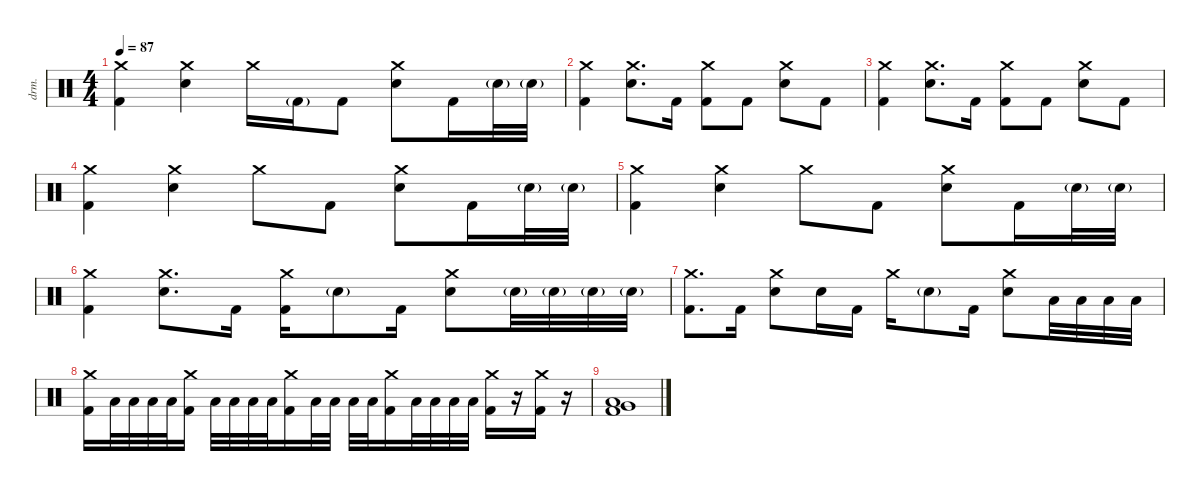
\defaultSystemsLayout 4
\hideDynamics
\bracketExtendMode nobrackets
\track ("Ударные" "drm.") {instrument percussion}
\staff {score}
\articulation defaults
\ts (4 4)
\tempo 87
\clef neutral
\ks c
("Crash medium (hit)" "Kick (hit) 2").4{dy f} ("Crash medium (hit)" "Snare (hit) 2").4 "Crash medium (hit)".16 "Kick (hit) 2"{g}.16{dy mf} "Kick (hit) 2".8{dy f} ("Crash medium (hit)" "Snare (hit) 2").8 "Kick (hit) 2".16 "Snare (hit) 2"{g}.32{dy mf} "Snare (hit) 2"{g}.32 |
("Crash medium (hit)" "Kick (hit) 2").4{dy f} ("Crash medium (hit)" "Snare (hit) 2").8{d} "Kick (hit) 2".16 ("Crash medium (hit)" "Kick (hit) 2").8 "Kick (hit) 2".8 ("Crash medium (hit)" "Snare (hit) 2").8 "Kick (hit) 2".8 |
("Crash medium (hit)" "Kick (hit) 2").4 ("Crash medium (hit)" "Snare (hit) 2").8{d} "Kick (hit) 2".16 ("Crash medium (hit)" "Kick (hit) 2").8 "Kick (hit) 2".8 ("Crash medium (hit)" "Snare (hit) 2").8 "Kick (hit) 2".8 |
("Crash medium (hit)" "Kick (hit) 2").4 ("Crash medium (hit)" "Snare (hit) 2").4 "Crash medium (hit)".8 "Kick (hit) 2".8 ("Crash medium (hit)" "Snare (hit) 2").8 "Kick (hit) 2".16 "Snare (hit) 2"{g}.32{dy mf} "Snare (hit) 2"{g}.32 |
("Crash medium (hit)" "Kick (hit) 2").4{dy f} ("Crash medium (hit)" "Snare (hit) 2").4 "Crash medium (hit)".8 "Kick (hit) 2".8 ("Crash medium (hit)" "Snare (hit) 2").8 "Kick (hit) 2".16 "Snare (hit) 2"{g}.32{dy mf} "Snare (hit) 2"{g}.32 |
("Crash medium (hit)" "Kick (hit) 2").4{dy f} ("Crash medium (hit)" "Snare (hit) 2").8{d} "Kick (hit) 2".16 ("Crash medium (hit)" "Kick (hit) 2").16 "Snare (hit) 2"{g}.8{dy mf} "Kick (hit) 2".16{dy f} ("Crash medium (hit)" "Snare (hit) 2").8 "Snare (hit) 2"{g}.32{dy mf} "Snare (hit) 2"{g}.32 "Snare (hit) 2"{g}.32 "Snare (hit) 2"{g}.32 |
("Crash medium (hit)" "Kick (hit) 2").8{d dy f} "Kick (hit) 2".16 ("Crash medium (hit)" "Snare (hit) 2").8 "Snare (hit) 2".16 "Kick (hit) 2".16 "Crash medium (hit)".16 "Snare (hit) 2"{g}.8{dy mf} "Kick (hit) 2".16{dy f} ("Crash medium (hit)" "Snare (hit) 2").8 "Low Floor Tom (hit)".32 "Low Floor Tom (hit)".32 "Low Floor Tom (hit)".32 "Low Floor Tom (hit)".32 |
("Crash medium (hit)" "Kick (hit) 2").16 "Low Floor Tom (hit)".32 "Low Floor Tom (hit)".32 "Low Floor Tom (hit)".32 "Low Floor Tom (hit)".32 ("Crash medium (hit)" "Kick (hit) 2").16 "Low Floor Tom (hit)".32 "Low Floor Tom (hit)".32 "Low Floor Tom (hit)".32 "Low Floor Tom (hit)".32 ("Crash medium (hit)" "Kick (hit) 2").16 "Low Floor Tom (hit)".32 "Low Floor Tom (hit)".32 "Low Floor Tom (hit)".32 "Low Floor Tom (hit)".32 ("Crash medium (hit)" "Kick (hit) 2").16 "Low Floor Tom (hit)".32 "Low Floor Tom (hit)".32 "Low Floor Tom (hit)".32 "Low Floor Tom (hit)".32 ("Crash medium (hit)" "Kick (hit) 2").16 r.16 ("Crash medium (hit)" "Kick (hit) 2").16 r.16 |
("Low Floor Tom (hit)" "Very Low Tom (hit)" "Kick (hit) 2").1
